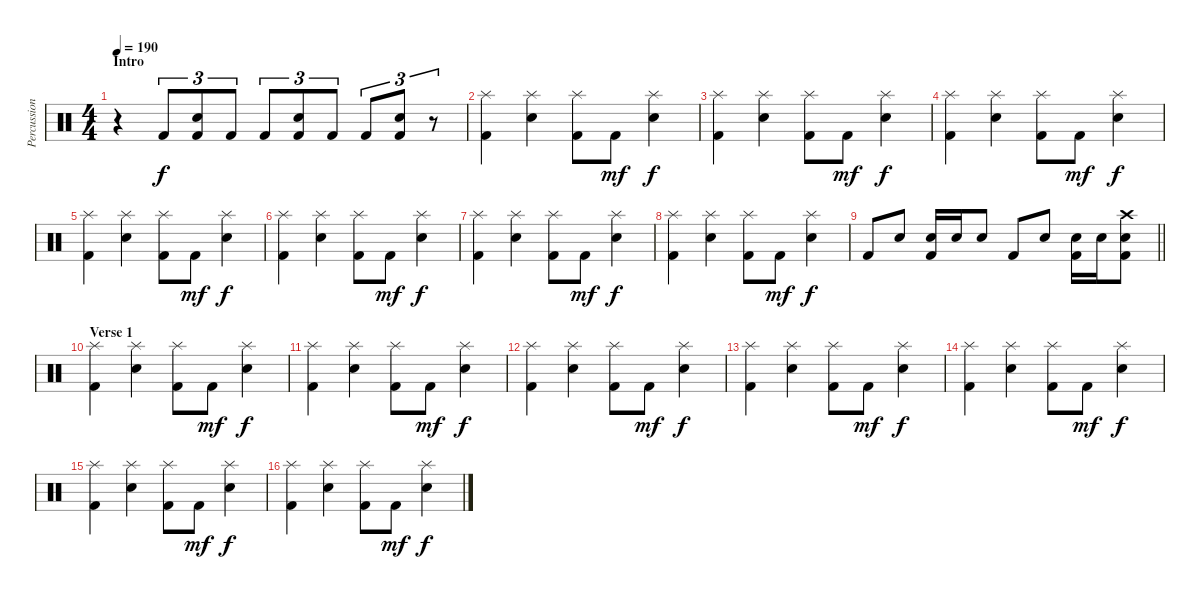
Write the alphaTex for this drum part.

\track ("Percussion" "Percussion") {instrument percussion}
\staff {score}
\articulation defaults
\ts (4 4)
\section ("" "Intro")
\tempo 190
\clef neutral
\ks c
r.4{dy f} "Kick (hit) 2".8{tu (3 2)} ("Electric Snare (hit)" "Kick (hit) 2").8{tu (3 2)} "Kick (hit) 2".8{tu (3 2)} "Kick (hit) 2".8{tu (3 2)} ("Electric Snare (hit)" "Kick (hit) 2").8{tu (3 2)} "Kick (hit) 2".8{tu (3 2)} "Kick (hit) 2".8{tu (3 2)} ("Electric Snare (hit)" "Kick (hit) 2").8{tu (3 2)} r.8{tu (3 2)} |
("Splash (hit)" "Kick (hit) 2").4 ("Splash (hit)" "Electric Snare (hit)").4 ("Splash (hit)" "Kick (hit) 2").8 "Kick (hit) 2".8{dy mf} ("Splash (hit)" "Electric Snare (hit)").4{dy f} |
("Splash (hit)" "Kick (hit) 2").4 ("Splash (hit)" "Electric Snare (hit)").4 ("Splash (hit)" "Kick (hit) 2").8 "Kick (hit) 2".8{dy mf} ("Splash (hit)" "Electric Snare (hit)").4{dy f} |
("Splash (hit)" "Kick (hit) 2").4 ("Splash (hit)" "Electric Snare (hit)").4 ("Splash (hit)" "Kick (hit) 2").8 "Kick (hit) 2".8{dy mf} ("Splash (hit)" "Electric Snare (hit)").4{dy f} |
("Splash (hit)" "Kick (hit) 2").4 ("Splash (hit)" "Electric Snare (hit)").4 ("Splash (hit)" "Kick (hit) 2").8 "Kick (hit) 2".8{dy mf} ("Splash (hit)" "Electric Snare (hit)").4{dy f} |
("Splash (hit)" "Kick (hit) 2").4 ("Splash (hit)" "Electric Snare (hit)").4 ("Splash (hit)" "Kick (hit) 2").8 "Kick (hit) 2".8{dy mf} ("Splash (hit)" "Electric Snare (hit)").4{dy f} |
("Splash (hit)" "Kick (hit) 2").4 ("Splash (hit)" "Electric Snare (hit)").4 ("Splash (hit)" "Kick (hit) 2").8 "Kick (hit) 2".8{dy mf} ("Splash (hit)" "Electric Snare (hit)").4{dy f} |
("Splash (hit)" "Kick (hit) 2").4 ("Splash (hit)" "Electric Snare (hit)").4 ("Splash (hit)" "Kick (hit) 2").8 "Kick (hit) 2".8{dy mf} ("Splash (hit)" "Electric Snare (hit)").4{dy f} |
\barLineRight lightlight "Kick (hit) 2".8 "Electric Snare (hit)".8
("Electric Snare (hit)" "Kick (hit) 2").16 "Electric Snare (hit)".16 "Electric Snare (hit)".8 "Kick (hit) 2".8 "Electric Snare (hit)".8 ("Electric Snare (hit)" "Kick (hit) 2").16 "Electric Snare (hit)".16 ("Crash high (hit)" "Electric Snare (hit)" "Kick (hit) 2").8 |
\section ("" "Verse 1")
("Splash (hit)" "Kick (hit) 2").4 ("Splash (hit)" "Electric Snare (hit)").4 ("Splash (hit)" "Kick (hit) 2").8 "Kick (hit) 2".8{dy mf} ("Splash (hit)" "Electric Snare (hit)").4{dy f} |
("Splash (hit)" "Kick (hit) 2").4 ("Splash (hit)" "Electric Snare (hit)").4 ("Splash (hit)" "Kick (hit) 2").8 "Kick (hit) 2".8{dy mf} ("Splash (hit)" "Electric Snare (hit)").4{dy f} |
("Splash (hit)" "Kick (hit) 2").4 ("Splash (hit)" "Electric Snare (hit)").4 ("Splash (hit)" "Kick (hit) 2").8 "Kick (hit) 2".8{dy mf} ("Splash (hit)" "Electric Snare (hit)").4{dy f} |
("Splash (hit)" "Kick (hit) 2").4 ("Splash (hit)" "Electric Snare (hit)").4 ("Splash (hit)" "Kick (hit) 2").8 "Kick (hit) 2".8{dy mf} ("Splash (hit)" "Electric Snare (hit)").4{dy f} |
("Splash (hit)" "Kick (hit) 2").4 ("Splash (hit)" "Electric Snare (hit)").4 ("Splash (hit)" "Kick (hit) 2").8 "Kick (hit) 2".8{dy mf} ("Splash (hit)" "Electric Snare (hit)").4{dy f} |
("Splash (hit)" "Kick (hit) 2").4 ("Splash (hit)" "Electric Snare (hit)").4 ("Splash (hit)" "Kick (hit) 2").8 "Kick (hit) 2".8{dy mf} ("Splash (hit)" "Electric Snare (hit)").4{dy f} |
("Splash (hit)" "Kick (hit) 2").4 ("Splash (hit)" "Electric Snare (hit)").4 ("Splash (hit)" "Kick (hit) 2").8 "Kick (hit) 2".8{dy mf} ("Splash (hit)" "Electric Snare (hit)").4{dy f}
